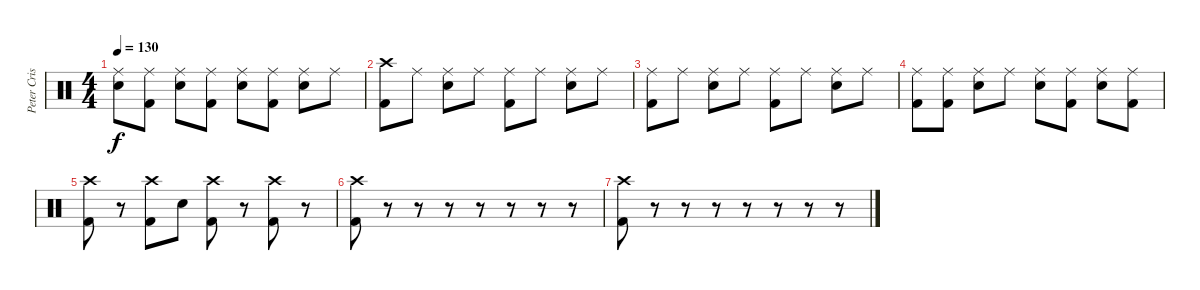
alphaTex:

\track ("Peter Criss" "Peter Cris") {instrument percussion}
\staff {score}
\articulation defaults
\ts (4 4)
\tempo 130
\clef neutral
\ks c
("Ride (middle)" "Electric Snare (hit)").8{dy f} ("Ride (middle)" "Kick (hit) 2").8 ("Ride (middle)" "Electric Snare (hit)").8 ("Ride (middle)" "Kick (hit) 2").8 ("Ride (middle)" "Electric Snare (hit)").8 ("Ride (middle)" "Kick (hit) 2").8 ("Ride (middle)" "Electric Snare (hit)").8 "Ride (middle)".8 |
("Crash high (hit)" "Kick (hit) 2").8 "Ride (middle)".8 ("Ride (middle)" "Electric Snare (hit)").8 "Ride (middle)".8 ("Ride (middle)" "Kick (hit) 2").8 "Ride (middle)".8 ("Ride (middle)" "Electric Snare (hit)").8 "Ride (middle)".8 |
("Ride (middle)" "Kick (hit) 2").8 "Ride (middle)".8 ("Ride (middle)" "Electric Snare (hit)").8 "Ride (middle)".8 ("Ride (middle)" "Kick (hit) 2").8 "Ride (middle)".8 ("Ride (middle)" "Electric Snare (hit)").8 "Ride (middle)".8 |
("Ride (middle)" "Kick (hit) 2").8 ("Ride (middle)" "Kick (hit) 2").8 ("Ride (middle)" "Electric Snare (hit)").8 "Ride (middle)".8 ("Ride (middle)" "Electric Snare (hit)").8 ("Ride (middle)" "Kick (hit) 2").8 ("Ride (middle)" "Electric Snare (hit)").8 ("Ride (middle)" "Kick (hit) 2").8 |
("Crash high (hit)" "Kick (hit) 2").8 r.8 ("Crash high (hit)" "Kick (hit) 2").8 "Electric Snare (hit)".8 ("Crash high (hit)" "Kick (hit) 2").8 r.8 ("Crash high (hit)" "Kick (hit) 2").8 r.8 |
("Crash high (hit)" "Kick (hit) 2").8 r.8 r.8 r.8 r.8 r.8 r.8 r.8 |
("Crash high (hit)" "Kick (hit) 2").8 r.8 r.8 r.8 r.8 r.8 r.8 r.8
